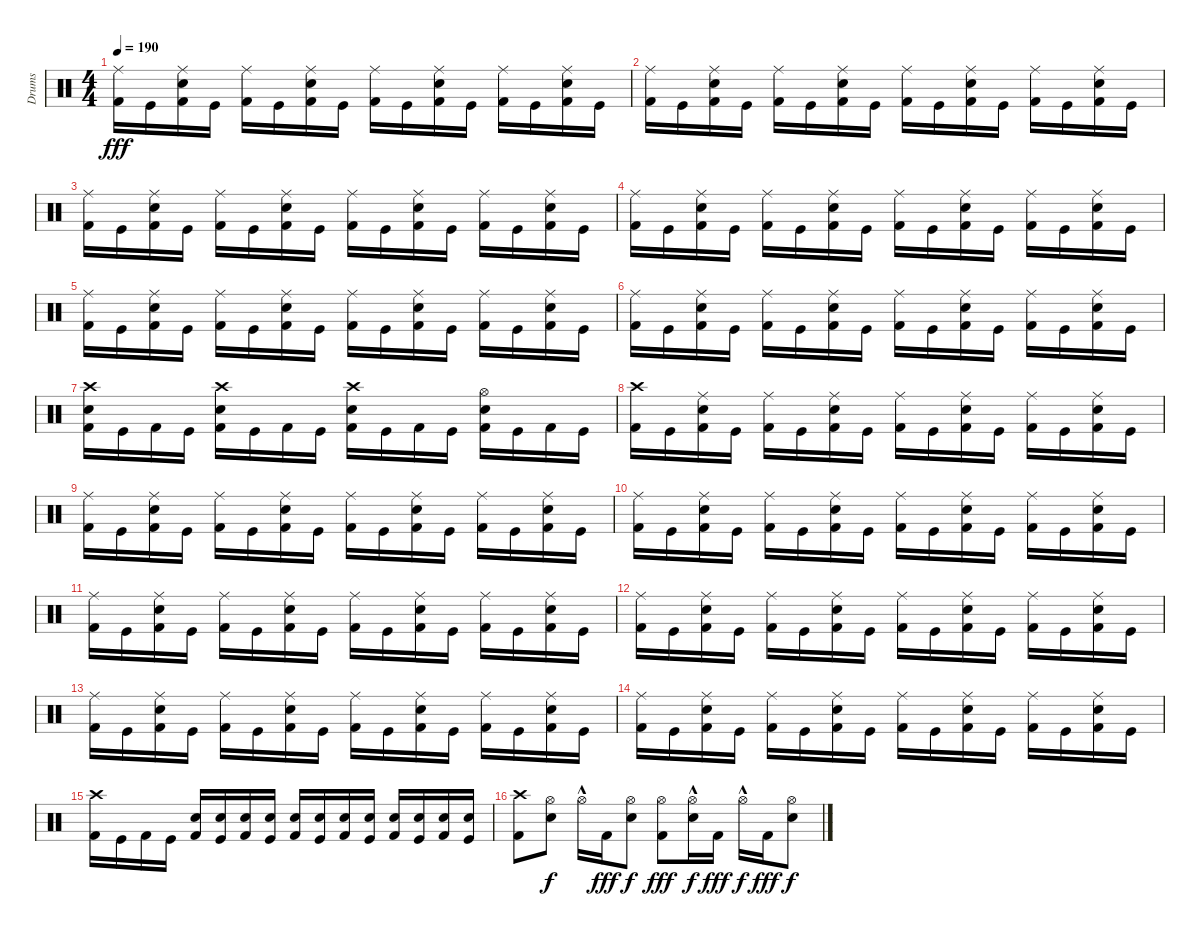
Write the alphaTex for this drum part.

\track ("Drums" "Drums") {instrument percussion}
\staff {score}
\articulation defaults
\ts (4 4)
\tempo 190
\clef neutral
\ks c
("Ride (middle)" "Kick (hit) 2").16{dy fff} "Kick (hit)".16 ("Ride (middle)" "Electric Snare (hit)" "Kick (hit) 2").16 "Kick (hit)".16 ("Ride (middle)" "Kick (hit) 2").16 "Kick (hit)".16 ("Ride (middle)" "Electric Snare (hit)" "Kick (hit) 2").16 "Kick (hit)".16 ("Ride (middle)" "Kick (hit) 2").16 "Kick (hit)".16 ("Ride (middle)" "Electric Snare (hit)" "Kick (hit) 2").16 "Kick (hit)".16 ("Ride (middle)" "Kick (hit) 2").16 "Kick (hit)".16 ("Ride (middle)" "Electric Snare (hit)" "Kick (hit) 2").16 "Kick (hit)".16 |
("Ride (middle)" "Kick (hit) 2").16 "Kick (hit)".16 ("Ride (middle)" "Electric Snare (hit)" "Kick (hit) 2").16 "Kick (hit)".16 ("Ride (middle)" "Kick (hit) 2").16 "Kick (hit)".16 ("Ride (middle)" "Electric Snare (hit)" "Kick (hit) 2").16 "Kick (hit)".16 ("Ride (middle)" "Kick (hit) 2").16 "Kick (hit)".16 ("Ride (middle)" "Electric Snare (hit)" "Kick (hit) 2").16 "Kick (hit)".16 ("Ride (middle)" "Kick (hit) 2").16 "Kick (hit)".16 ("Ride (middle)" "Electric Snare (hit)" "Kick (hit) 2").16 "Kick (hit)".16 |
("Ride (middle)" "Kick (hit) 2").16 "Kick (hit)".16 ("Ride (middle)" "Electric Snare (hit)" "Kick (hit) 2").16 "Kick (hit)".16 ("Ride (middle)" "Kick (hit) 2").16 "Kick (hit)".16 ("Ride (middle)" "Electric Snare (hit)" "Kick (hit) 2").16 "Kick (hit)".16 ("Ride (middle)" "Kick (hit) 2").16 "Kick (hit)".16 ("Ride (middle)" "Electric Snare (hit)" "Kick (hit) 2").16 "Kick (hit)".16 ("Ride (middle)" "Kick (hit) 2").16 "Kick (hit)".16 ("Ride (middle)" "Electric Snare (hit)" "Kick (hit) 2").16 "Kick (hit)".16 |
("Ride (middle)" "Kick (hit) 2").16 "Kick (hit)".16 ("Ride (middle)" "Electric Snare (hit)" "Kick (hit) 2").16 "Kick (hit)".16 ("Ride (middle)" "Kick (hit) 2").16 "Kick (hit)".16 ("Ride (middle)" "Electric Snare (hit)" "Kick (hit) 2").16 "Kick (hit)".16 ("Ride (middle)" "Kick (hit) 2").16 "Kick (hit)".16 ("Ride (middle)" "Electric Snare (hit)" "Kick (hit) 2").16 "Kick (hit)".16 ("Ride (middle)" "Kick (hit) 2").16 "Kick (hit)".16 ("Ride (middle)" "Electric Snare (hit)" "Kick (hit) 2").16 "Kick (hit)".16 |
("Ride (middle)" "Kick (hit) 2").16 "Kick (hit)".16 ("Ride (middle)" "Electric Snare (hit)" "Kick (hit) 2").16 "Kick (hit)".16 ("Ride (middle)" "Kick (hit) 2").16 "Kick (hit)".16 ("Ride (middle)" "Electric Snare (hit)" "Kick (hit) 2").16 "Kick (hit)".16 ("Ride (middle)" "Kick (hit) 2").16 "Kick (hit)".16 ("Ride (middle)" "Electric Snare (hit)" "Kick (hit) 2").16 "Kick (hit)".16 ("Ride (middle)" "Kick (hit) 2").16 "Kick (hit)".16 ("Ride (middle)" "Electric Snare (hit)" "Kick (hit) 2").16 "Kick (hit)".16 |
("Ride (middle)" "Kick (hit) 2").16 "Kick (hit)".16 ("Ride (middle)" "Electric Snare (hit)" "Kick (hit) 2").16 "Kick (hit)".16 ("Ride (middle)" "Kick (hit) 2").16 "Kick (hit)".16 ("Ride (middle)" "Electric Snare (hit)" "Kick (hit) 2").16 "Kick (hit)".16 ("Ride (middle)" "Kick (hit) 2").16 "Kick (hit)".16 ("Ride (middle)" "Electric Snare (hit)" "Kick (hit) 2").16 "Kick (hit)".16 ("Ride (middle)" "Kick (hit) 2").16 "Kick (hit)".16 ("Ride (middle)" "Electric Snare (hit)" "Kick (hit) 2").16 "Kick (hit)".16 |
("Crash high (hit)" "Electric Snare (hit)" "Kick (hit) 2").16 "Kick (hit)".16 "Kick (hit) 2".16 "Kick (hit)".16 ("Crash high (hit)" "Electric Snare (hit)" "Kick (hit) 2").16 "Kick (hit)".16 "Kick (hit) 2".16 "Kick (hit)".16 ("Crash high (hit)" "Electric Snare (hit)" "Kick (hit) 2").16 "Kick (hit)".16 "Kick (hit) 2".16 "Kick (hit)".16 ("Hi-Hat (open)" "Electric Snare (hit)" "Kick (hit) 2").16 "Kick (hit)".16 "Kick (hit) 2".16 "Kick (hit)".16 |
("Crash high (hit)" "Kick (hit) 2").16 "Kick (hit)".16 ("Ride (middle)" "Electric Snare (hit)" "Kick (hit) 2").16 "Kick (hit)".16 ("Ride (middle)" "Kick (hit) 2").16 "Kick (hit)".16 ("Ride (middle)" "Electric Snare (hit)" "Kick (hit) 2").16 "Kick (hit)".16 ("Ride (middle)" "Kick (hit) 2").16 "Kick (hit)".16 ("Ride (middle)" "Electric Snare (hit)" "Kick (hit) 2").16 "Kick (hit)".16 ("Ride (middle)" "Kick (hit) 2").16 "Kick (hit)".16 ("Ride (middle)" "Electric Snare (hit)" "Kick (hit) 2").16 "Kick (hit)".16 |
("Ride (middle)" "Kick (hit) 2").16 "Kick (hit)".16 ("Ride (middle)" "Electric Snare (hit)" "Kick (hit) 2").16 "Kick (hit)".16 ("Ride (middle)" "Kick (hit) 2").16 "Kick (hit)".16 ("Ride (middle)" "Electric Snare (hit)" "Kick (hit) 2").16 "Kick (hit)".16 ("Ride (middle)" "Kick (hit) 2").16 "Kick (hit)".16 ("Ride (middle)" "Electric Snare (hit)" "Kick (hit) 2").16 "Kick (hit)".16 ("Ride (middle)" "Kick (hit) 2").16 "Kick (hit)".16 ("Ride (middle)" "Electric Snare (hit)" "Kick (hit) 2").16 "Kick (hit)".16 |
("Ride (middle)" "Kick (hit) 2").16 "Kick (hit)".16 ("Ride (middle)" "Electric Snare (hit)" "Kick (hit) 2").16 "Kick (hit)".16 ("Ride (middle)" "Kick (hit) 2").16 "Kick (hit)".16 ("Ride (middle)" "Electric Snare (hit)" "Kick (hit) 2").16 "Kick (hit)".16 ("Ride (middle)" "Kick (hit) 2").16 "Kick (hit)".16 ("Ride (middle)" "Electric Snare (hit)" "Kick (hit) 2").16 "Kick (hit)".16 ("Ride (middle)" "Kick (hit) 2").16 "Kick (hit)".16 ("Ride (middle)" "Electric Snare (hit)" "Kick (hit) 2").16 "Kick (hit)".16 |
("Ride (middle)" "Kick (hit) 2").16 "Kick (hit)".16 ("Ride (middle)" "Electric Snare (hit)" "Kick (hit) 2").16 "Kick (hit)".16 ("Ride (middle)" "Kick (hit) 2").16 "Kick (hit)".16 ("Ride (middle)" "Electric Snare (hit)" "Kick (hit) 2").16 "Kick (hit)".16 ("Ride (middle)" "Kick (hit) 2").16 "Kick (hit)".16 ("Ride (middle)" "Electric Snare (hit)" "Kick (hit) 2").16 "Kick (hit)".16 ("Ride (middle)" "Kick (hit) 2").16 "Kick (hit)".16 ("Ride (middle)" "Electric Snare (hit)" "Kick (hit) 2").16 "Kick (hit)".16 |
("Ride (middle)" "Kick (hit) 2").16 "Kick (hit)".16 ("Ride (middle)" "Electric Snare (hit)" "Kick (hit) 2").16 "Kick (hit)".16 ("Ride (middle)" "Kick (hit) 2").16 "Kick (hit)".16 ("Ride (middle)" "Electric Snare (hit)" "Kick (hit) 2").16 "Kick (hit)".16 ("Ride (middle)" "Kick (hit) 2").16 "Kick (hit)".16 ("Ride (middle)" "Electric Snare (hit)" "Kick (hit) 2").16 "Kick (hit)".16 ("Ride (middle)" "Kick (hit) 2").16 "Kick (hit)".16 ("Ride (middle)" "Electric Snare (hit)" "Kick (hit) 2").16 "Kick (hit)".16 |
("Ride (middle)" "Kick (hit) 2").16 "Kick (hit)".16 ("Ride (middle)" "Electric Snare (hit)" "Kick (hit) 2").16 "Kick (hit)".16 ("Ride (middle)" "Kick (hit) 2").16 "Kick (hit)".16 ("Ride (middle)" "Electric Snare (hit)" "Kick (hit) 2").16 "Kick (hit)".16 ("Ride (middle)" "Kick (hit) 2").16 "Kick (hit)".16 ("Ride (middle)" "Electric Snare (hit)" "Kick (hit) 2").16 "Kick (hit)".16 ("Ride (middle)" "Kick (hit) 2").16 "Kick (hit)".16 ("Ride (middle)" "Electric Snare (hit)" "Kick (hit) 2").16 "Kick (hit)".16 |
("Ride (middle)" "Kick (hit) 2").16 "Kick (hit)".16 ("Ride (middle)" "Electric Snare (hit)" "Kick (hit) 2").16 "Kick (hit)".16 ("Ride (middle)" "Kick (hit) 2").16 "Kick (hit)".16 ("Ride (middle)" "Electric Snare (hit)" "Kick (hit) 2").16 "Kick (hit)".16 ("Ride (middle)" "Kick (hit) 2").16 "Kick (hit)".16 ("Ride (middle)" "Electric Snare (hit)" "Kick (hit) 2").16 "Kick (hit)".16 ("Ride (middle)" "Kick (hit) 2").16 "Kick (hit)".16 ("Ride (middle)" "Electric Snare (hit)" "Kick (hit) 2").16 "Kick (hit)".16 |
("Crash high (hit)" "Kick (hit) 2").16 "Kick (hit)".16 "Kick (hit) 2".16 "Kick (hit)".16 ("Electric Snare (hit)" "Kick (hit) 2").16 ("Electric Snare (hit)" "Kick (hit)").16 ("Electric Snare (hit)" "Kick (hit) 2").16 ("Electric Snare (hit)" "Kick (hit)").16 ("Electric Snare (hit)" "Kick (hit) 2").16 ("Electric Snare (hit)" "Kick (hit)").16 ("Electric Snare (hit)" "Kick (hit) 2").16 ("Electric Snare (hit)" "Kick (hit)").16 ("Electric Snare (hit)" "Kick (hit) 2").16 ("Electric Snare (hit)" "Kick (hit)").16 ("Electric Snare (hit)" "Kick (hit) 2").16 ("Electric Snare (hit)" "Kick (hit)").16 |
("Crash high (hit)" "Kick (hit) 2").8 ("Hi-Hat (open)" "Electric Snare (hit)").8{dy f} "Hi-Hat (open)"{hac}.16 "Kick (hit) 2".16{dy fff} ("Hi-Hat (open)" "Electric Snare (hit)").8{dy f} ("Hi-Hat (open)" "Kick (hit) 2").8{dy fff} ("Hi-Hat (open)"{hac} "Electric Snare (hit)").16{dy f} "Kick (hit) 2".16{dy fff} "Hi-Hat (open)"{hac}.16{dy f} "Kick (hit) 2".16{dy fff} ("Hi-Hat (open)" "Electric Snare (hit)").8{dy f}
